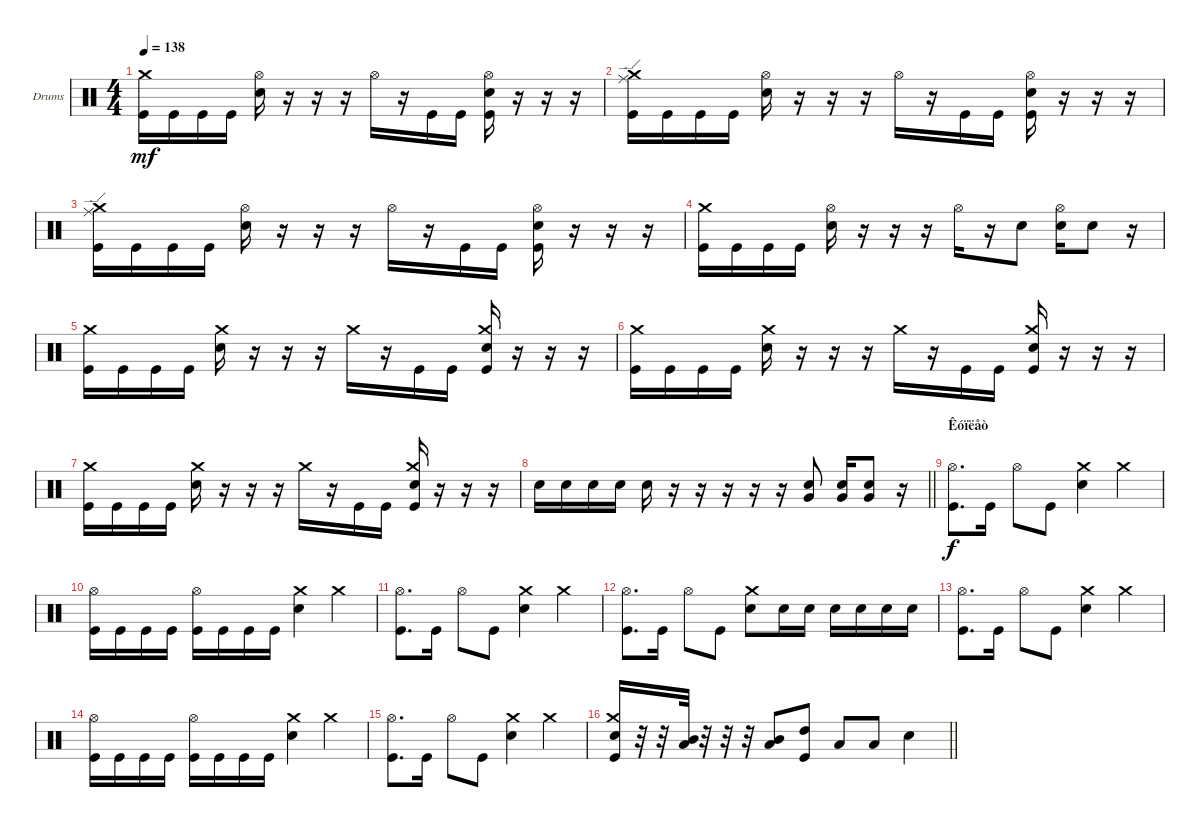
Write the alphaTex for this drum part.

\bracketExtendMode groupsimilarinstruments
\firstSystemTrackNameOrientation horizontal
\otherSystemsTrackNameOrientation horizontal
\track ("Drumkit" "Drums") {instrument percussion}
\staff {score}
\articulation defaults
\ts (4 4)
\tempo 138
\clef neutral
\ks c
("Kick (hit)" "Crash medium (hit)").16{dy mf} "Kick (hit)".16 "Kick (hit)".16 "Kick (hit)".16 ("Snare (hit) 2" "Hi-Hat (open)").16 r.16 r.16 r.16 "Hi-Hat (open)".16 r.16 "Kick (hit)".16 "Kick (hit)".16 ("Kick (hit)" "Snare (hit) 2" "Hi-Hat (open)").16 r.16 r.16 r.16 |
("Kick (hit)" "Crash medium (hit)" "Ride (edge)").16 "Kick (hit)".16 "Kick (hit)".16 "Kick (hit)".16 ("Snare (hit) 2" "Hi-Hat (open)").16 r.16 r.16 r.16 "Hi-Hat (open)".16 r.16 "Kick (hit)".16 "Kick (hit)".16 ("Kick (hit)" "Snare (hit) 2" "Hi-Hat (open)").16 r.16 r.16 r.16 |
("Kick (hit)" "Crash medium (hit)" "Ride (edge)").16 "Kick (hit)".16 "Kick (hit)".16 "Kick (hit)".16 ("Snare (hit) 2" "Hi-Hat (open)").16 r.16 r.16 r.16 "Hi-Hat (open)".16 r.16 "Kick (hit)".16 "Kick (hit)".16 ("Kick (hit)" "Snare (hit) 2" "Hi-Hat (open)").16 r.16 r.16 r.16 |
("Kick (hit)" "Crash medium (hit)").16 "Kick (hit)".16 "Kick (hit)".16 "Kick (hit)".16 ("Snare (hit) 2" "Hi-Hat (open)").16 r.16 r.16 r.16 "Hi-Hat (open)".16 r.16 "Snare (hit) 2".8 ("Snare (hit) 2" "Hi-Hat (open)").16 "Snare (hit) 2".8 r.16 |
("Kick (hit)" "Crash medium (hit)").16 "Kick (hit)".16 "Kick (hit)".16 "Kick (hit)".16 ("Snare (hit) 2" "Crash medium (hit)").16 r.16 r.16 r.16 "Crash medium (hit)".16 r.16 "Kick (hit)".16 "Kick (hit)".16 ("Kick (hit)" "Snare (hit) 2" "Crash medium (hit)").16 r.16 r.16 r.16 |
("Kick (hit)" "Crash medium (hit)").16 "Kick (hit)".16 "Kick (hit)".16 "Kick (hit)".16 ("Snare (hit) 2" "Crash medium (hit)").16 r.16 r.16 r.16 "Crash medium (hit)".16 r.16 "Kick (hit)".16 "Kick (hit)".16 ("Kick (hit)" "Snare (hit) 2" "Crash medium (hit)").16 r.16 r.16 r.16 |
("Kick (hit)" "Crash medium (hit)").16 "Kick (hit)".16 "Kick (hit)".16 "Kick (hit)".16 ("Snare (hit) 2" "Crash medium (hit)").16 r.16 r.16 r.16 "Crash medium (hit)".16 r.16 "Kick (hit)".16 "Kick (hit)".16 ("Kick (hit)" "Snare (hit) 2" "Crash medium (hit)").16 r.16 r.16 r.16 |
\barLineRight lightlight "Snare (hit) 2".16 "Snare (hit) 2".16 "Snare (hit) 2".16 "Snare (hit) 2".16 "Snare (hit) 2".16
r.16 r.16 r.16 r.16 r.16 ("Snare (hit) 2" "Very Low Tom (hit)").8 ("Snare (hit) 2" "Very Low Tom (hit)").16 ("Snare (hit) 2" "Very Low Tom (hit)").8 r.16 |
\section ("" "Êóïëåò")
("Kick (hit)" "Hi-Hat (open)").8{d dy f} "Kick (hit)".16 "Hi-Hat (open)".8 "Kick (hit)".8 ("Snare (hit) 2" "Crash medium (hit)").4 "Crash medium (hit)".4 |
("Kick (hit)" "Hi-Hat (open)").16 "Kick (hit)".16 "Kick (hit)".16 "Kick (hit)".16 ("Kick (hit)" "Hi-Hat (open)").16 "Kick (hit)".16 "Kick (hit)".16 "Kick (hit)".16 ("Snare (hit) 2" "Crash medium (hit)").4 "Crash medium (hit)".4 |
("Kick (hit)" "Hi-Hat (open)").8{d} "Kick (hit)".16 "Hi-Hat (open)".8 "Kick (hit)".8 ("Snare (hit) 2" "Crash medium (hit)").4 "Crash medium (hit)".4 |
("Kick (hit)" "Hi-Hat (open)").8{d} "Kick (hit)".16 "Hi-Hat (open)".8 "Kick (hit)".8 ("Snare (hit) 2" "Crash medium (hit)").8 "Snare (hit) 2".16 "Snare (hit) 2".16 "Snare (hit) 2".16 "Snare (hit) 2".16 "Snare (hit) 2".16 "Snare (hit) 2".16 |
("Kick (hit)" "Hi-Hat (open)").8{d} "Kick (hit)".16 "Hi-Hat (open)".8 "Kick (hit)".8 ("Snare (hit) 2" "Crash medium (hit)").4 "Crash medium (hit)".4 |
("Kick (hit)" "Hi-Hat (open)").16 "Kick (hit)".16 "Kick (hit)".16 "Kick (hit)".16 ("Kick (hit)" "Hi-Hat (open)").16 "Kick (hit)".16 "Kick (hit)".16 "Kick (hit)".16 ("Snare (hit) 2" "Crash medium (hit)").4 "Crash medium (hit)".4 |
("Kick (hit)" "Hi-Hat (open)").8{d} "Kick (hit)".16 "Hi-Hat (open)".8 "Kick (hit)".8 ("Snare (hit) 2" "Crash medium (hit)").4 "Crash medium (hit)".4 |
\barLineRight lightlight
("Crash medium (hit)" "Snare (hit) 2" "Kick (hit)").16 r.32 r.32 ("Mid Tom (hit)" "Low Tom (hit)").32 r.32 r.32 r.32 ("Mid Tom (hit)" "Low Tom (hit)").8 ("High Tom (hit)" "Kick (hit)").8 "Low Tom (hit)".8 "Low Tom (hit)".8 "Snare (hit) 2".4
